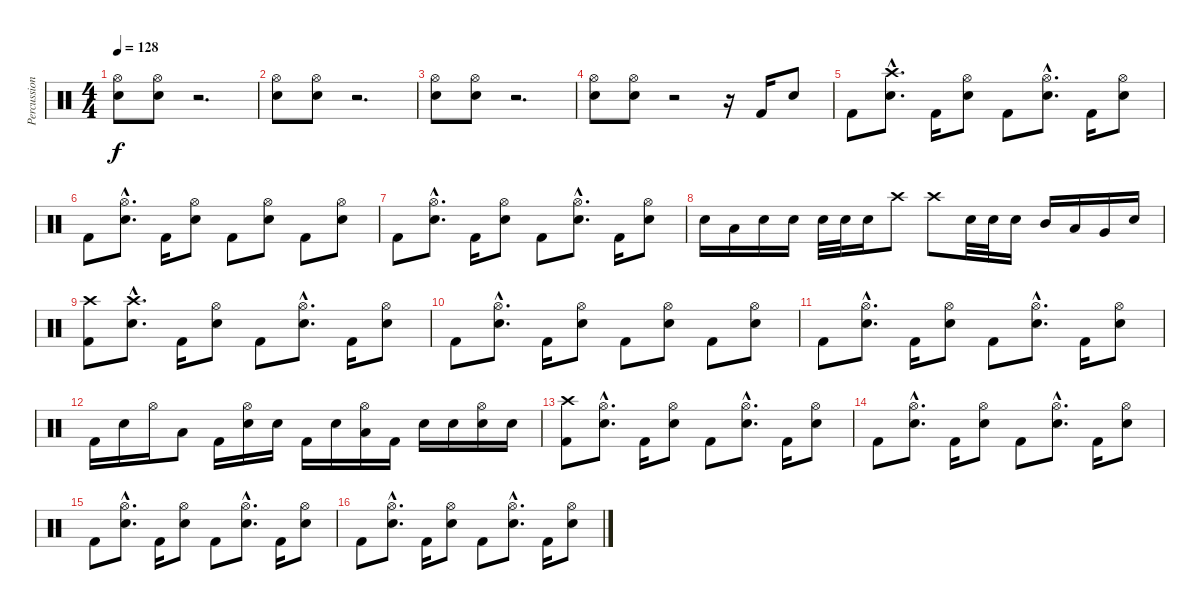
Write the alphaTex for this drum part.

\track ("Percussions" "Percussion") {instrument percussion}
\staff {score}
\articulation defaults
\ts (4 4)
\tempo 128
\clef neutral
\ks c
("Hi-Hat (open)" "Electric Snare (hit)").8{dy f} ("Hi-Hat (open)" "Electric Snare (hit)").8 r.2{d} |
("Hi-Hat (open)" "Electric Snare (hit)").8 ("Hi-Hat (open)" "Electric Snare (hit)").8 r.2{d} |
("Hi-Hat (open)" "Electric Snare (hit)").8 ("Hi-Hat (open)" "Electric Snare (hit)").8 r.2{d} |
("Hi-Hat (open)" "Electric Snare (hit)").8 ("Hi-Hat (open)" "Electric Snare (hit)").8 r.2 r.16 "Kick (hit) 2".16 "Electric Snare (hit)".8 |
"Kick (hit) 2".8 ("Crash high (hit)"{hac} "Electric Snare (hit)"{hac}).8{d} "Kick (hit) 2".16 ("Hi-Hat (open)" "Electric Snare (hit)").8 "Kick (hit) 2".8 ("Hi-Hat (open)"{hac} "Electric Snare (hit)"{hac}).8{d} "Kick (hit) 2".16 ("Hi-Hat (open)" "Electric Snare (hit)").8 |
"Kick (hit) 2".8 ("Hi-Hat (open)"{hac} "Electric Snare (hit)"{hac}).8{d} "Kick (hit) 2".16 ("Hi-Hat (open)" "Electric Snare (hit)").8 "Kick (hit) 2".8 ("Hi-Hat (open)" "Electric Snare (hit)").8 "Kick (hit) 2".8 ("Hi-Hat (open)" "Electric Snare (hit)").8 |
"Kick (hit) 2".8 ("Hi-Hat (open)"{hac} "Electric Snare (hit)"{hac}).8{d} "Kick (hit) 2".16 ("Hi-Hat (open)" "Electric Snare (hit)").8 "Kick (hit) 2".8 ("Hi-Hat (open)"{hac} "Electric Snare (hit)"{hac}).8{d} "Kick (hit) 2".16 ("Hi-Hat (open)" "Electric Snare (hit)").8 |
"Electric Snare (hit)".16 "Low Tom (hit)".16 "Electric Snare (hit)".16 "Electric Snare (hit)".16 "Electric Snare (hit)".32 "Electric Snare (hit)".32 "Electric Snare (hit)".16 "Crash high (hit)".8 "Crash high (hit)".8 "Electric Snare (hit)".32 "Electric Snare (hit)".32 "Electric Snare (hit)".16 "Mid Tom (hit)".16 "Low Tom (hit)".16 "Very Low Tom (hit)".16 "Electric Snare (hit)".16 |
("Crash high (hit)" "Kick (hit) 2").8 ("Crash high (hit)"{hac} "Electric Snare (hit)"{hac}).8{d} "Kick (hit) 2".16 ("Hi-Hat (open)" "Electric Snare (hit)").8 "Kick (hit) 2".8 ("Hi-Hat (open)"{hac} "Electric Snare (hit)"{hac}).8{d} "Kick (hit) 2".16 ("Hi-Hat (open)" "Electric Snare (hit)").8 |
"Kick (hit) 2".8 ("Hi-Hat (open)"{hac} "Electric Snare (hit)"{hac}).8{d} "Kick (hit) 2".16 ("Hi-Hat (open)" "Electric Snare (hit)").8 "Kick (hit) 2".8 ("Hi-Hat (open)" "Electric Snare (hit)").8 "Kick (hit) 2".8 ("Hi-Hat (open)" "Electric Snare (hit)").8 |
"Kick (hit) 2".8 ("Hi-Hat (open)"{hac} "Electric Snare (hit)"{hac}).8{d} "Kick (hit) 2".16 ("Hi-Hat (open)" "Electric Snare (hit)").8 "Kick (hit) 2".8 ("Hi-Hat (open)"{hac} "Electric Snare (hit)"{hac}).8{d} "Kick (hit) 2".16 ("Hi-Hat (open)" "Electric Snare (hit)").8 |
"Kick (hit) 2".16 "Electric Snare (hit)".16 "Hi-Hat (open)".16 "Low Tom (hit)".8 "Kick (hit) 2".16 ("Hi-Hat (open)" "Electric Snare (hit)").16 "Electric Snare (hit)".16 "Kick (hit) 2".16 "Electric Snare (hit)".16 ("Hi-Hat (open)" "Low Tom (hit)").16 "Kick (hit) 2".16 "Electric Snare (hit)".16 "Electric Snare (hit)".16 ("Hi-Hat (open)" "Electric Snare (hit)").16 "Electric Snare (hit)".16 |
("Crash high (hit)" "Kick (hit) 2").8 ("Hi-Hat (open)"{hac} "Electric Snare (hit)"{hac}).8{d} "Kick (hit) 2".16 ("Hi-Hat (open)" "Electric Snare (hit)").8 "Kick (hit) 2".8 ("Hi-Hat (open)"{hac} "Electric Snare (hit)"{hac}).8{d} "Kick (hit) 2".16 ("Hi-Hat (open)" "Electric Snare (hit)").8 |
"Kick (hit) 2".8 ("Hi-Hat (open)"{hac} "Electric Snare (hit)"{hac}).8{d} "Kick (hit) 2".16 ("Hi-Hat (open)" "Electric Snare (hit)").8 "Kick (hit) 2".8 ("Hi-Hat (open)"{hac} "Electric Snare (hit)"{hac}).8{d} "Kick (hit) 2".16 ("Hi-Hat (open)" "Electric Snare (hit)").8 |
"Kick (hit) 2".8 ("Hi-Hat (open)"{hac} "Electric Snare (hit)"{hac}).8{d} "Kick (hit) 2".16 ("Hi-Hat (open)" "Electric Snare (hit)").8 "Kick (hit) 2".8 ("Hi-Hat (open)"{hac} "Electric Snare (hit)"{hac}).8{d} "Kick (hit) 2".16 ("Hi-Hat (open)" "Electric Snare (hit)").8 |
"Kick (hit) 2".8 ("Hi-Hat (open)"{hac} "Electric Snare (hit)"{hac}).8{d} "Kick (hit) 2".16 ("Hi-Hat (open)" "Electric Snare (hit)").8 "Kick (hit) 2".8 ("Hi-Hat (open)"{hac} "Electric Snare (hit)"{hac}).8{d} "Kick (hit) 2".16 ("Hi-Hat (open)" "Electric Snare (hit)").8
